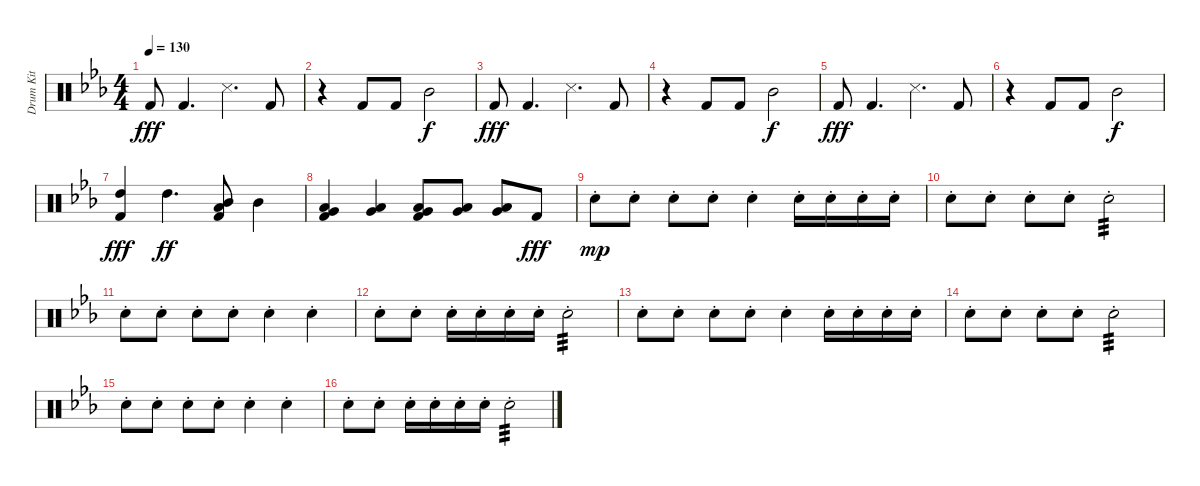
\track ("Drum Kit" "Drum Kit") {instrument percussion}
\staff {score}
\articulation defaults
\ts (4 4)
\tempo 130
\clef neutral
\ks cminor "Kick (hit) 2".8{dy fff} "Kick (hit) 2".4{d} "Snare (side stick) 3".4{d} "Kick (hit) 2".8
|
r.4 "Kick (hit) 2".8 "Kick (hit) 2".8 "Mid Tom (hit)".2{dy f} |
"Kick (hit) 2".8{dy fff} "Kick (hit) 2".4{d} "Snare (side stick) 3".4{d} "Kick (hit) 2".8 |
r.4 "Kick (hit) 2".8 "Kick (hit) 2".8 "Mid Tom (hit)".2{dy f} |
"Kick (hit) 2".8{dy fff} "Kick (hit) 2".4{d} "Snare (side stick) 3".4{d} "Kick (hit) 2".8 |
r.4 "Kick (hit) 2".8 "Kick (hit) 2".8 "Mid Tom (hit)".2{dy f} |
("High Tom (hit)" "Kick (hit) 2").4{dy fff} "High Tom (hit)".4{d dy ff} ("Kick (hit) 2" "Mid Tom (hit)" "Low Tom (hit)").8 "Mid Tom (hit)".4 |
("Kick (hit) 2" "Low Tom (hit)" "Very Low Tom (hit)").4 ("Low Tom (hit)" "Very Low Tom (hit)").4 ("Kick (hit) 2" "Very Low Tom (hit)" "Low Floor Tom (hit)").8 ("Very Low Tom (hit)" "Low Floor Tom (hit)").8 ("Very Low Tom (hit)" "Low Floor Tom (hit)").8 "Kick (hit) 2".8{dy fff} |
"Electric Snare (hit)"{st}.8{dy mp} "Electric Snare (hit)"{st}.8 "Electric Snare (hit)"{st}.8 "Electric Snare (hit)"{st}.8 "Electric Snare (hit)"{st}.4 "Electric Snare (hit)"{st}.16 "Electric Snare (hit)"{st}.16 "Electric Snare (hit)"{st}.16 "Electric Snare (hit)"{st}.16 |
"Electric Snare (hit)"{st}.8 "Electric Snare (hit)"{st}.8 "Electric Snare (hit)"{st}.8 "Electric Snare (hit)"{st}.8 "Electric Snare (hit)"{st}.2{tp 3} |
"Electric Snare (hit)"{st}.8 "Electric Snare (hit)"{st}.8 "Electric Snare (hit)"{st}.8 "Electric Snare (hit)"{st}.8 "Electric Snare (hit)"{st}.4 "Electric Snare (hit)"{st}.4 |
"Electric Snare (hit)"{st}.8 "Electric Snare (hit)"{st}.8 "Electric Snare (hit)"{st}.16 "Electric Snare (hit)"{st}.16 "Electric Snare (hit)"{st}.16 "Electric Snare (hit)"{st}.16 "Electric Snare (hit)"{st}.2{tp 3} |
"Electric Snare (hit)"{st}.8 "Electric Snare (hit)"{st}.8 "Electric Snare (hit)"{st}.8 "Electric Snare (hit)"{st}.8 "Electric Snare (hit)"{st}.4 "Electric Snare (hit)"{st}.16 "Electric Snare (hit)"{st}.16 "Electric Snare (hit)"{st}.16 "Electric Snare (hit)"{st}.16 |
"Electric Snare (hit)"{st}.8 "Electric Snare (hit)"{st}.8 "Electric Snare (hit)"{st}.8 "Electric Snare (hit)"{st}.8 "Electric Snare (hit)"{st}.2{tp 3} |
"Electric Snare (hit)"{st}.8 "Electric Snare (hit)"{st}.8 "Electric Snare (hit)"{st}.8 "Electric Snare (hit)"{st}.8 "Electric Snare (hit)"{st}.4 "Electric Snare (hit)"{st}.4 |
"Electric Snare (hit)"{st}.8 "Electric Snare (hit)"{st}.8 "Electric Snare (hit)"{st}.16 "Electric Snare (hit)"{st}.16 "Electric Snare (hit)"{st}.16 "Electric Snare (hit)"{st}.16 "Electric Snare (hit)"{st}.2{tp 3}
